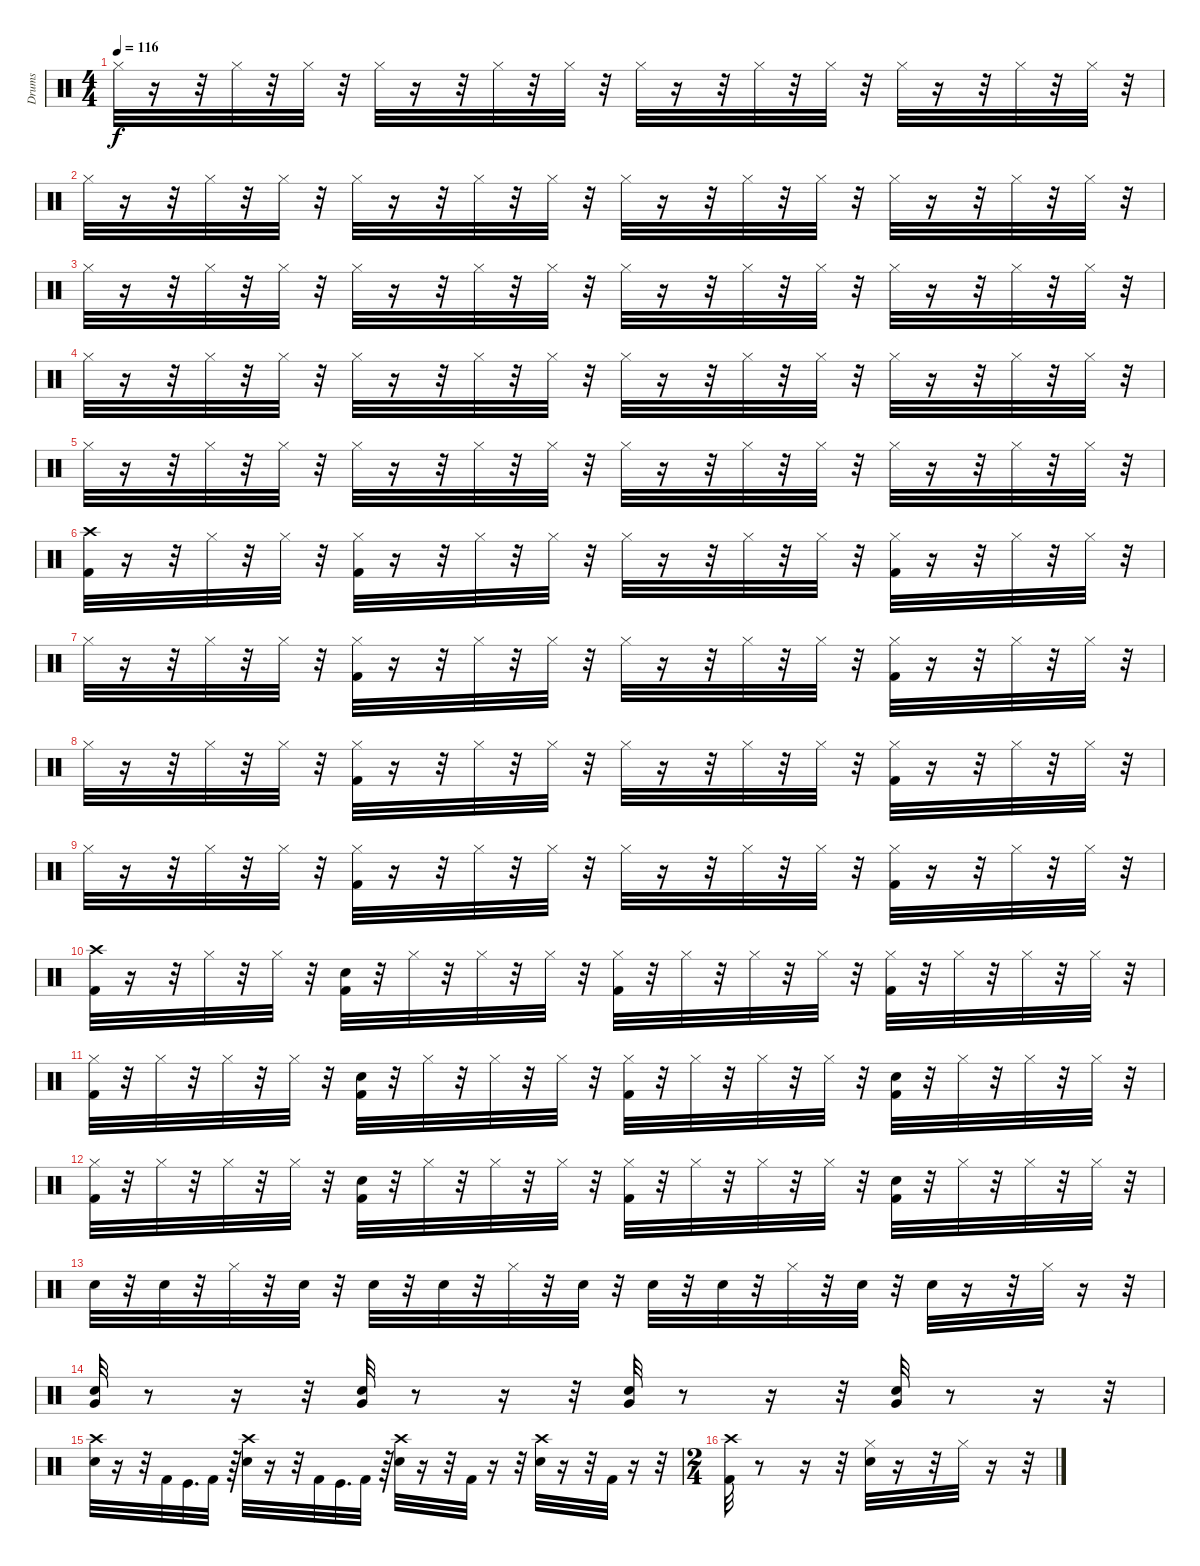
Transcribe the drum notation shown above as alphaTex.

\track ("Drums" "Drums") {instrument percussion}
\staff {score}
\articulation defaults
\ts (4 4)
\tempo 116
\clef neutral
\ks c "Hi-Hat (closed)".32{dy f}
r.16 r.32 "Hi-Hat (closed)".32 r.32 "Hi-Hat (closed)".32 r.32 "Hi-Hat (closed)".32 r.16 r.32 "Hi-Hat (closed)".32 r.32 "Hi-Hat (closed)".32 r.32 "Hi-Hat (closed)".32 r.16 r.32 "Hi-Hat (closed)".32 r.32 "Hi-Hat (closed)".32 r.32 "Hi-Hat (closed)".32 r.16 r.32 "Hi-Hat (closed)".32 r.32 "Hi-Hat (closed)".32 r.32 |
"Hi-Hat (closed)".32 r.16 r.32 "Hi-Hat (closed)".32 r.32 "Hi-Hat (closed)".32 r.32 "Hi-Hat (closed)".32 r.16 r.32 "Hi-Hat (closed)".32 r.32 "Hi-Hat (closed)".32 r.32 "Hi-Hat (closed)".32 r.16 r.32 "Hi-Hat (closed)".32 r.32 "Hi-Hat (closed)".32 r.32 "Hi-Hat (closed)".32 r.16 r.32 "Hi-Hat (closed)".32 r.32 "Hi-Hat (closed)".32 r.32 |
"Hi-Hat (closed)".32 r.16 r.32 "Hi-Hat (closed)".32 r.32 "Hi-Hat (closed)".32 r.32 "Hi-Hat (closed)".32 r.16 r.32 "Hi-Hat (closed)".32 r.32 "Hi-Hat (closed)".32 r.32 "Hi-Hat (closed)".32 r.16 r.32 "Hi-Hat (closed)".32 r.32 "Hi-Hat (closed)".32 r.32 "Hi-Hat (closed)".32 r.16 r.32 "Hi-Hat (closed)".32 r.32 "Hi-Hat (closed)".32 r.32 |
"Hi-Hat (closed)".32 r.16 r.32 "Hi-Hat (closed)".32 r.32 "Hi-Hat (closed)".32 r.32 "Hi-Hat (closed)".32 r.16 r.32 "Hi-Hat (closed)".32 r.32 "Hi-Hat (closed)".32 r.32 "Hi-Hat (closed)".32 r.16 r.32 "Hi-Hat (closed)".32 r.32 "Hi-Hat (closed)".32 r.32 "Hi-Hat (closed)".32 r.16 r.32 "Hi-Hat (closed)".32 r.32 "Hi-Hat (closed)".32 r.32 |
"Hi-Hat (closed)".32 r.16 r.32 "Hi-Hat (closed)".32 r.32 "Hi-Hat (closed)".32 r.32 "Hi-Hat (closed)".32 r.16 r.32 "Hi-Hat (closed)".32 r.32 "Hi-Hat (closed)".32 r.32 "Hi-Hat (closed)".32 r.16 r.32 "Hi-Hat (closed)".32 r.32 "Hi-Hat (closed)".32 r.32 "Hi-Hat (closed)".32 r.16 r.32 "Hi-Hat (closed)".32 r.32 "Hi-Hat (closed)".32 r.32 |
("Kick (hit) 2" "Crash high (hit)").32 r.16 r.32 "Hi-Hat (closed)".32 r.32 "Hi-Hat (closed)".32 r.32 ("Kick (hit) 2" "Hi-Hat (closed)").32 r.16 r.32 "Hi-Hat (closed)".32 r.32 "Hi-Hat (closed)".32 r.32 "Hi-Hat (closed)".32 r.16 r.32 "Hi-Hat (closed)".32 r.32 "Hi-Hat (closed)".32 r.32 ("Kick (hit) 2" "Hi-Hat (closed)").32 r.16 r.32 "Hi-Hat (closed)".32 r.32 "Hi-Hat (closed)".32 r.32 |
"Hi-Hat (closed)".32 r.16 r.32 "Hi-Hat (closed)".32 r.32 "Hi-Hat (closed)".32 r.32 ("Kick (hit) 2" "Hi-Hat (closed)").32 r.16 r.32 "Hi-Hat (closed)".32 r.32 "Hi-Hat (closed)".32 r.32 "Hi-Hat (closed)".32 r.16 r.32 "Hi-Hat (closed)".32 r.32 "Hi-Hat (closed)".32 r.32 ("Kick (hit) 2" "Hi-Hat (closed)").32 r.16 r.32 "Hi-Hat (closed)".32 r.32 "Hi-Hat (closed)".32 r.32 |
"Hi-Hat (closed)".32 r.16 r.32 "Hi-Hat (closed)".32 r.32 "Hi-Hat (closed)".32 r.32 ("Kick (hit) 2" "Hi-Hat (closed)").32 r.16 r.32 "Hi-Hat (closed)".32 r.32 "Hi-Hat (closed)".32 r.32 "Hi-Hat (closed)".32 r.16 r.32 "Hi-Hat (closed)".32 r.32 "Hi-Hat (closed)".32 r.32 ("Kick (hit) 2" "Hi-Hat (closed)").32 r.16 r.32 "Hi-Hat (closed)".32 r.32 "Hi-Hat (closed)".32 r.32 |
"Hi-Hat (closed)".32 r.16 r.32 "Hi-Hat (closed)".32 r.32 "Hi-Hat (closed)".32 r.32 ("Kick (hit) 2" "Hi-Hat (closed)").32 r.16 r.32 "Hi-Hat (closed)".32 r.32 "Hi-Hat (closed)".32 r.32 "Hi-Hat (closed)".32 r.16 r.32 "Hi-Hat (closed)".32 r.32 "Hi-Hat (closed)".32 r.32 ("Kick (hit) 2" "Hi-Hat (closed)").32 r.16 r.32 "Hi-Hat (closed)".32 r.32 "Hi-Hat (closed)".32 r.32 |
("Kick (hit) 2" "Crash high (hit)").32 r.16 r.32 "Hi-Hat (closed)".32 r.32 "Hi-Hat (closed)".32 r.32 ("Snare (hit) 2" "Kick (hit) 2").32 r.32 "Hi-Hat (closed)".32 r.32 "Hi-Hat (closed)".32 r.32 "Hi-Hat (closed)".32 r.32 ("Hi-Hat (closed)" "Kick (hit) 2").32 r.32 "Hi-Hat (closed)".32 r.32 "Hi-Hat (closed)".32 r.32 "Hi-Hat (closed)".32 r.32 ("Hi-Hat (closed)" "Kick (hit) 2").32 r.32 "Hi-Hat (closed)".32 r.32 "Hi-Hat (closed)".32 r.32 "Hi-Hat (closed)".32 r.32 |
("Kick (hit) 2" "Hi-Hat (closed)").32 r.32 "Hi-Hat (closed)".32 r.32 "Hi-Hat (closed)".32 r.32 "Hi-Hat (closed)".32 r.32 ("Snare (hit) 2" "Kick (hit) 2").32 r.32 "Hi-Hat (closed)".32 r.32 "Hi-Hat (closed)".32 r.32 "Hi-Hat (closed)".32 r.32 ("Hi-Hat (closed)" "Kick (hit) 2").32 r.32 "Hi-Hat (closed)".32 r.32 "Hi-Hat (closed)".32 r.32 "Hi-Hat (closed)".32 r.32 ("Snare (hit) 2" "Kick (hit) 2").32 r.32 "Hi-Hat (closed)".32 r.32 "Hi-Hat (closed)".32 r.32 "Hi-Hat (closed)".32 r.32 |
("Kick (hit) 2" "Hi-Hat (closed)").32 r.32 "Hi-Hat (closed)".32 r.32 "Hi-Hat (closed)".32 r.32 "Hi-Hat (closed)".32 r.32 ("Snare (hit) 2" "Kick (hit) 2").32 r.32 "Hi-Hat (closed)".32 r.32 "Hi-Hat (closed)".32 r.32 "Hi-Hat (closed)".32 r.32 ("Hi-Hat (closed)" "Kick (hit) 2").32 r.32 "Hi-Hat (closed)".32 r.32 "Hi-Hat (closed)".32 r.32 "Hi-Hat (closed)".32 r.32 ("Snare (hit) 2" "Kick (hit) 2").32 r.32 "Hi-Hat (closed)".32 r.32 "Hi-Hat (closed)".32 r.32 "Hi-Hat (closed)".32 r.32 |
"Snare (hit) 2".32 r.32 "Snare (hit) 2".32 r.32 "Hi-Hat (closed)".32 r.32 "Snare (hit) 2".32 r.32 "Snare (hit) 2".32 r.32 "Snare (hit) 2".32 r.32 "Hi-Hat (closed)".32 r.32 "Snare (hit) 2".32 r.32 "Snare (hit) 2".32 r.32 "Snare (hit) 2".32 r.32 "Hi-Hat (closed)".32 r.32 "Snare (hit) 2".32 r.32 "Snare (hit) 2".32 r.16 r.32 "Hi-Hat (closed)".32 r.16 r.32 |
("Very Low Tom (hit)" "Snare (hit) 2").32 r.8 r.16 r.32 ("Very Low Tom (hit)" "Snare (hit) 2").32 r.8 r.16 r.32 ("Very Low Tom (hit)" "Snare (hit) 2").32 r.8 r.16 r.32 ("Very Low Tom (hit)" "Snare (hit) 2").32 r.8 r.16 r.32 |
("Crash high (hit)" "Snare (hit) 2").32 r.16 r.32 "Kick (hit) 2".32 "Kick (hit)".32{d} "Kick (hit) 2".32 r.64 ("Crash high (hit)" "Snare (hit) 2").32 r.16 r.32 "Kick (hit) 2".32 "Kick (hit)".32{d} "Kick (hit) 2".32 r.64 ("Crash high (hit)" "Snare (hit) 2").32 r.16 r.32 "Kick (hit) 2".32 r.16 r.32 ("Crash high (hit)" "Snare (hit) 2").32 r.16 r.32 "Kick (hit) 2".32 r.16 r.32 |
\ts (2 4)
("Crash high (hit)" "Kick (hit) 2").32 r.8 r.16 r.32 ("Hi-Hat (closed)" "Snare (hit) 2").32 r.16 r.32 "Hi-Hat (closed)".32 r.16 r.32
